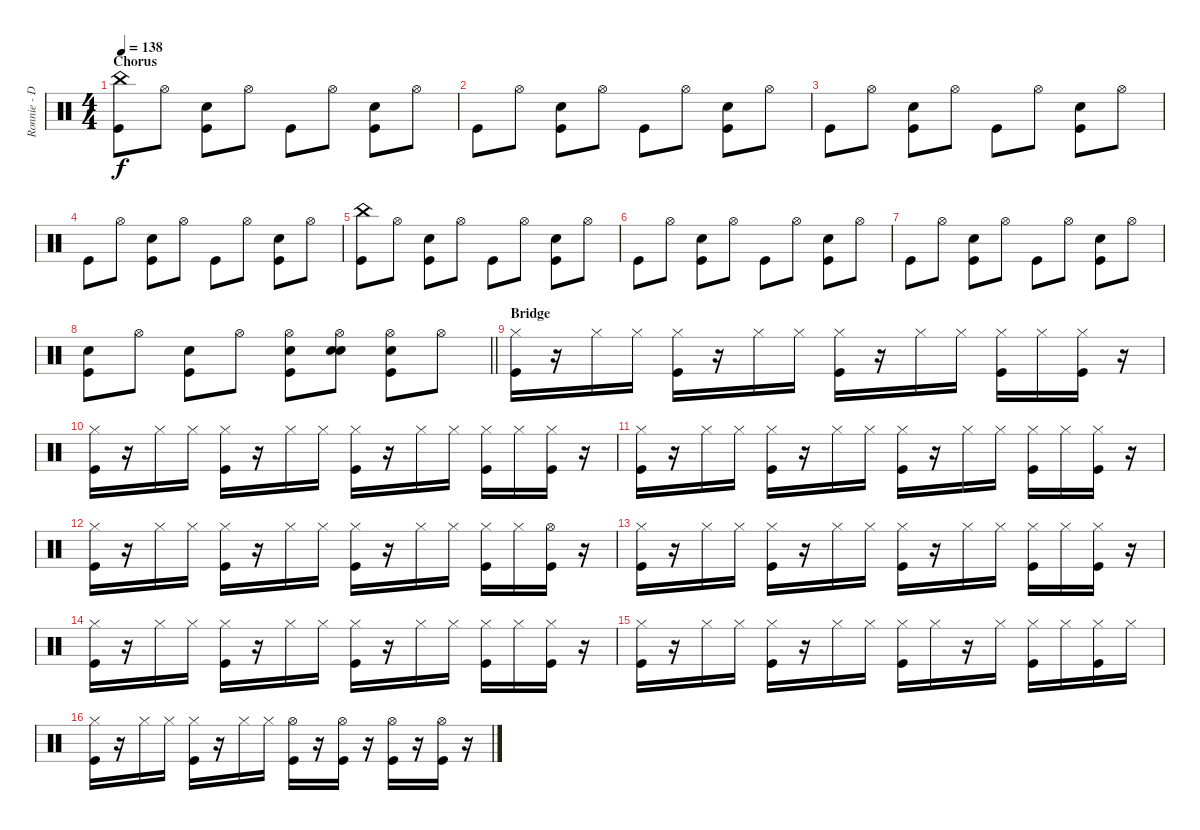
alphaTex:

\track ("Ronnie - Drums" "Ronnie - D") {instrument percussion}
\staff {score}
\articulation defaults
\ts (4 4)
\section ("" "Chorus")
\tempo 138
\clef neutral
\ks c
("China (hit)" "Kick (hit)").8{dy f} "Hi-Hat (open)".8 ("Snare (hit) 2" "Kick (hit)").8 "Hi-Hat (open)".8 "Kick (hit)".8 "Hi-Hat (open)".8 ("Snare (hit) 2" "Kick (hit)").8 "Hi-Hat (open)".8 |
"Kick (hit)".8 "Hi-Hat (open)".8 ("Snare (hit) 2" "Kick (hit)").8 "Hi-Hat (open)".8 "Kick (hit)".8 "Hi-Hat (open)".8 ("Snare (hit) 2" "Kick (hit)").8 "Hi-Hat (open)".8 |
"Kick (hit)".8 "Hi-Hat (open)".8 ("Snare (hit) 2" "Kick (hit)").8 "Hi-Hat (open)".8 "Kick (hit)".8 "Hi-Hat (open)".8 ("Snare (hit) 2" "Kick (hit)").8 "Hi-Hat (open)".8 |
"Kick (hit)".8 "Hi-Hat (open)".8 ("Snare (hit) 2" "Kick (hit)").8 "Hi-Hat (open)".8 "Kick (hit)".8 "Hi-Hat (open)".8 ("Snare (hit) 2" "Kick (hit)").8 "Hi-Hat (open)".8 |
("China (hit)" "Kick (hit)").8 "Hi-Hat (open)".8 ("Snare (hit) 2" "Kick (hit)").8 "Hi-Hat (open)".8 "Kick (hit)".8 "Hi-Hat (open)".8 ("Snare (hit) 2" "Kick (hit)").8 "Hi-Hat (open)".8 |
"Kick (hit)".8 "Hi-Hat (open)".8 ("Snare (hit) 2" "Kick (hit)").8 "Hi-Hat (open)".8 "Kick (hit)".8 "Hi-Hat (open)".8 ("Snare (hit) 2" "Kick (hit)").8 "Hi-Hat (open)".8 |
"Kick (hit)".8 "Hi-Hat (open)".8 ("Snare (hit) 2" "Kick (hit)").8 "Hi-Hat (open)".8 "Kick (hit)".8 "Hi-Hat (open)".8 ("Snare (hit) 2" "Kick (hit)").8 "Hi-Hat (open)".8 |
\barLineRight lightlight
("Snare (hit) 2" "Kick (hit)").8 "Hi-Hat (open)".8 ("Snare (hit) 2" "Kick (hit)").8 "Hi-Hat (open)".8 ("Hi-Hat (open)" "Snare (hit) 2" "Kick (hit)").8 ("Hi-Hat (open)" "Snare (hit) 2" "Snare (hit) 2").8 ("Hi-Hat (open)" "Snare (hit) 2" "Kick (hit)").8 "Hi-Hat (open)".8 |
\section ("" "Bridge")
("Hi-Hat (closed)" "Kick (hit)").16 r.16 "Hi-Hat (closed)".16 "Hi-Hat (closed)".16 ("Hi-Hat (closed)" "Kick (hit)").16 r.16 "Hi-Hat (closed)".16 "Hi-Hat (closed)".16 ("Hi-Hat (closed)" "Kick (hit)").16 r.16 "Hi-Hat (closed)".16 "Hi-Hat (closed)".16 ("Hi-Hat (closed)" "Kick (hit)").16 "Hi-Hat (closed)".16 ("Hi-Hat (closed)" "Kick (hit)").16 r.16 |
("Hi-Hat (closed)" "Kick (hit)").16 r.16 "Hi-Hat (closed)".16 "Hi-Hat (closed)".16 ("Hi-Hat (closed)" "Kick (hit)").16 r.16 "Hi-Hat (closed)".16 "Hi-Hat (closed)".16 ("Hi-Hat (closed)" "Kick (hit)").16 r.16 "Hi-Hat (closed)".16 "Hi-Hat (closed)".16 ("Hi-Hat (closed)" "Kick (hit)").16 "Hi-Hat (closed)".16 ("Hi-Hat (closed)" "Kick (hit)").16 r.16 |
("Hi-Hat (closed)" "Kick (hit)").16 r.16 "Hi-Hat (closed)".16 "Hi-Hat (closed)".16 ("Hi-Hat (closed)" "Kick (hit)").16 r.16 "Hi-Hat (closed)".16 "Hi-Hat (closed)".16 ("Hi-Hat (closed)" "Kick (hit)").16 r.16 "Hi-Hat (closed)".16 "Hi-Hat (closed)".16 ("Hi-Hat (closed)" "Kick (hit)").16 "Hi-Hat (closed)".16 ("Hi-Hat (closed)" "Kick (hit)").16 r.16 |
("Hi-Hat (closed)" "Kick (hit)").16 r.16 "Hi-Hat (closed)".16 "Hi-Hat (closed)".16 ("Hi-Hat (closed)" "Kick (hit)").16 r.16 "Hi-Hat (closed)".16 "Hi-Hat (closed)".16 ("Hi-Hat (closed)" "Kick (hit)").16 r.16 "Hi-Hat (closed)".16 "Hi-Hat (closed)".16 ("Hi-Hat (closed)" "Kick (hit)").16 "Hi-Hat (closed)".16 ("Hi-Hat (open)" "Kick (hit)").16 r.16 |
("Hi-Hat (closed)" "Kick (hit)").16 r.16 "Hi-Hat (closed)".16 "Hi-Hat (closed)".16 ("Hi-Hat (closed)" "Kick (hit)").16 r.16 "Hi-Hat (closed)".16 "Hi-Hat (closed)".16 ("Hi-Hat (closed)" "Kick (hit)").16 r.16 "Hi-Hat (closed)".16 "Hi-Hat (closed)".16 ("Hi-Hat (closed)" "Kick (hit)").16 "Hi-Hat (closed)".16 ("Hi-Hat (closed)" "Kick (hit)").16 r.16 |
("Hi-Hat (closed)" "Kick (hit)").16 r.16 "Hi-Hat (closed)".16 "Hi-Hat (closed)".16 ("Hi-Hat (closed)" "Kick (hit)").16 r.16 "Hi-Hat (closed)".16 "Hi-Hat (closed)".16 ("Hi-Hat (closed)" "Kick (hit)").16 r.16 "Hi-Hat (closed)".16 "Hi-Hat (closed)".16 ("Hi-Hat (closed)" "Kick (hit)").16 "Hi-Hat (closed)".16 ("Hi-Hat (closed)" "Kick (hit)").16 r.16 |
("Hi-Hat (closed)" "Kick (hit)").16 r.16 "Hi-Hat (closed)".16 "Hi-Hat (closed)".16 ("Hi-Hat (closed)" "Kick (hit)").16 r.16 "Hi-Hat (closed)".16 "Hi-Hat (closed)".16 ("Hi-Hat (closed)" "Kick (hit)").16 "Hi-Hat (closed)".16 r.16 "Hi-Hat (closed)".16 ("Hi-Hat (closed)" "Kick (hit)").16 "Hi-Hat (closed)".16 ("Hi-Hat (closed)" "Kick (hit)").16 "Hi-Hat (closed)".16 |
("Hi-Hat (closed)" "Kick (hit)").16 r.16 "Hi-Hat (closed)".16 "Hi-Hat (closed)".16 ("Hi-Hat (closed)" "Kick (hit)").16 r.16 "Hi-Hat (closed)".16 "Hi-Hat (closed)".16 ("Hi-Hat (open)" "Kick (hit)").16 r.16 ("Hi-Hat (open)" "Kick (hit)").16 r.16 ("Hi-Hat (open)" "Kick (hit)").16 r.16 ("Hi-Hat (open)" "Kick (hit)").16 r.16
